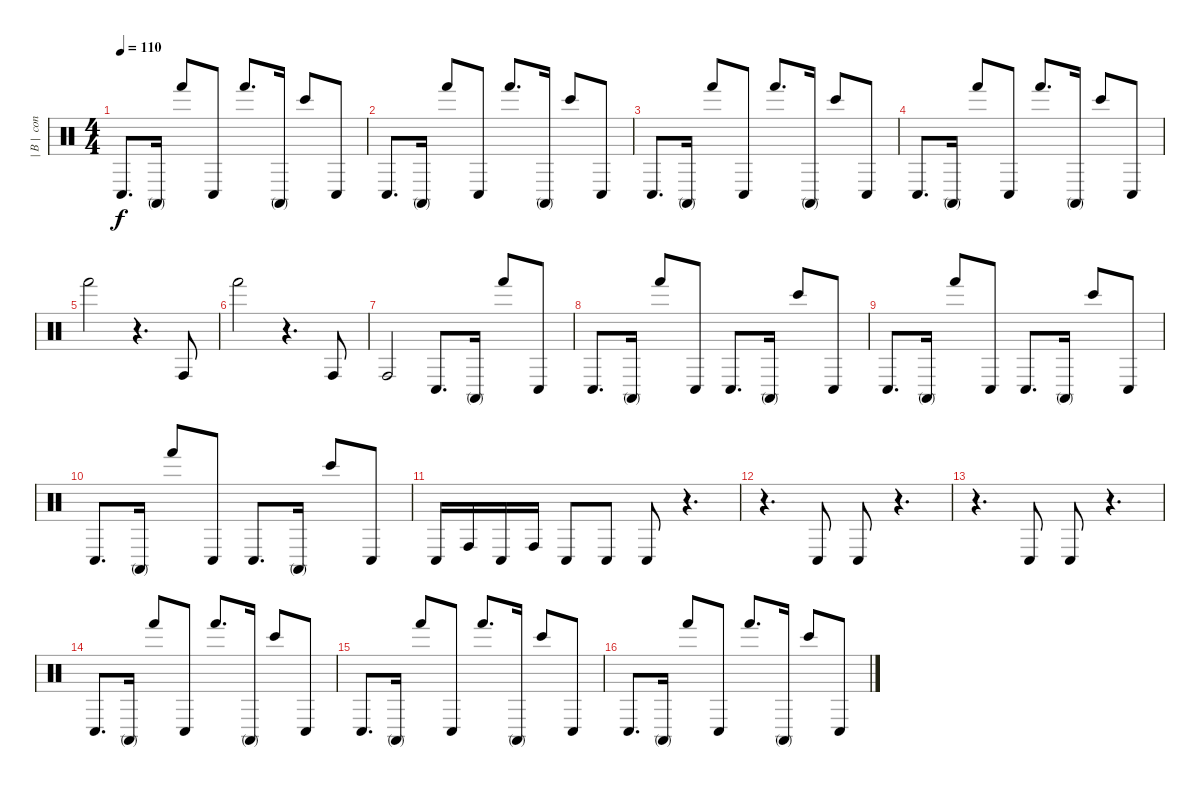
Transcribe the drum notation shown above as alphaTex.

\track ("| B |  conga" "| B |  con") {instrument percussion}
\staff {score}
\articulation defaults
\ts (4 4)
\tempo 110
\clef neutral
\ks c "Conga low (hit)".8{d dy f} "Conga high (mute)".16 "Hand (hit)".8 "Conga low (hit)".8 "Hand (hit)".8{d} "Conga high (mute)".16 "Bongo High (hit)".8 "Conga low (hit)".8
|
"Conga low (hit)".8{d} "Conga high (mute)".16 "Hand (hit)".8 "Conga low (hit)".8 "Hand (hit)".8{d} "Conga high (mute)".16 "Bongo High (hit)".8 "Conga low (hit)".8 |
"Conga low (hit)".8{d} "Conga high (mute)".16 "Hand (hit)".8 "Conga low (hit)".8 "Hand (hit)".8{d} "Conga high (mute)".16 "Bongo High (hit)".8 "Conga low (hit)".8 |
"Conga low (hit)".8{d} "Conga high (mute)".16 "Hand (hit)".8 "Conga low (hit)".8 "Hand (hit)".8{d} "Conga high (mute)".16 "Bongo High (hit)".8 "Conga low (hit)".8 |
"Hand (hit)".2 r.4{d} "Conga high (hit)".8 |
"Hand (hit)".2 r.4{d} "Conga high (hit)".8 |
"Conga high (hit)".2 "Conga low (hit)".8{d} "Conga high (mute)".16 "Hand (hit)".8 "Conga low (hit)".8 |
"Conga low (hit)".8{d} "Conga high (mute)".16 "Hand (hit)".8 "Conga low (hit)".8 "Conga low (hit)".8{d} "Conga high (mute)".16 "Bongo High (hit)".8 "Conga low (hit)".8 |
"Conga low (hit)".8{d} "Conga high (mute)".16 "Hand (hit)".8 "Conga low (hit)".8 "Conga low (hit)".8{d} "Conga high (mute)".16 "Bongo High (hit)".8 "Conga low (hit)".8 |
"Conga low (hit)".8{d} "Conga high (mute)".16 "Hand (hit)".8 "Conga low (hit)".8 "Conga low (hit)".8{d} "Conga high (mute)".16 "Bongo High (hit)".8 "Conga low (hit)".8 |
"Conga low (hit)".16 "Conga high (hit)".16 "Conga low (hit)".16 "Conga high (hit)".16 "Conga low (hit)".8 "Conga low (hit)".8 "Conga low (hit)".8 r.4{d} |
r.4{d} "Conga low (hit)".8 "Conga low (hit)".8 r.4{d} |
r.4{d} "Conga low (hit)".8 "Conga low (hit)".8 r.4{d} |
"Conga low (hit)".8{d} "Conga high (mute)".16 "Hand (hit)".8 "Conga low (hit)".8 "Hand (hit)".8{d} "Conga high (mute)".16 "Bongo High (hit)".8 "Conga low (hit)".8 |
"Conga low (hit)".8{d} "Conga high (mute)".16 "Hand (hit)".8 "Conga low (hit)".8 "Hand (hit)".8{d} "Conga high (mute)".16 "Bongo High (hit)".8 "Conga low (hit)".8 |
"Conga low (hit)".8{d} "Conga high (mute)".16 "Hand (hit)".8 "Conga low (hit)".8 "Hand (hit)".8{d} "Conga high (mute)".16 "Bongo High (hit)".8 "Conga low (hit)".8
